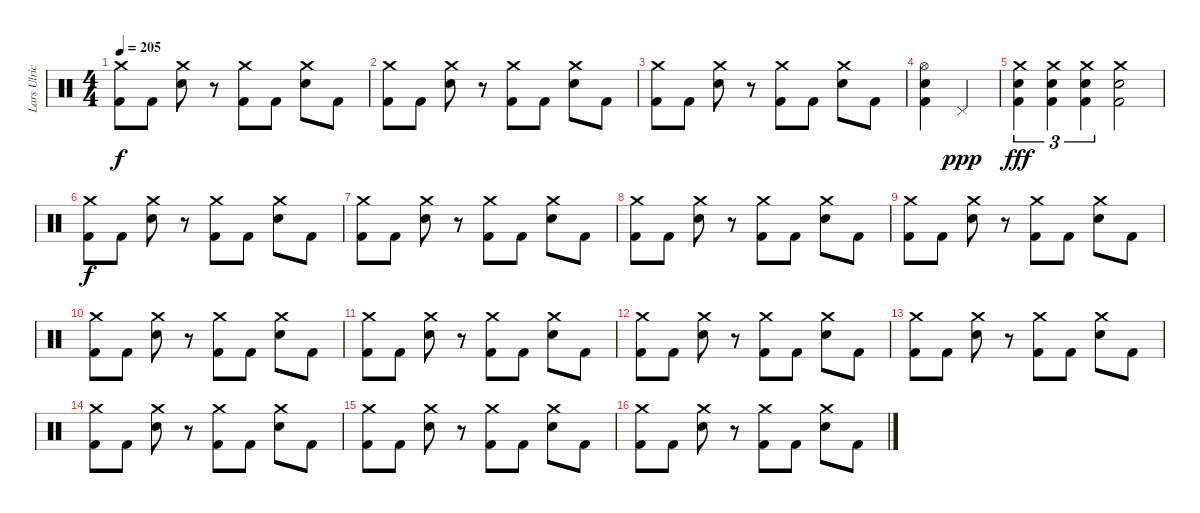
\track ("Lars Ulrich" "Lars Ulric") {instrument percussion}
\staff {score}
\articulation defaults
\ts (4 4)
\tempo 205
\clef neutral
\ks c
("Crash medium (hit)" "Kick (hit) 2").8{dy f} "Kick (hit) 2".8 ("Crash medium (hit)" "Electric Snare (hit)").8 r.8 ("Crash medium (hit)" "Kick (hit) 2").8 "Kick (hit) 2".8 ("Crash medium (hit)" "Electric Snare (hit)").8 "Kick (hit) 2".8 |
("Crash medium (hit)" "Kick (hit) 2").8 "Kick (hit) 2".8 ("Crash medium (hit)" "Electric Snare (hit)").8 r.8 ("Crash medium (hit)" "Kick (hit) 2").8 "Kick (hit) 2".8 ("Crash medium (hit)" "Electric Snare (hit)").8 "Kick (hit) 2".8 |
("Crash medium (hit)" "Kick (hit) 2").8 "Kick (hit) 2".8 ("Crash medium (hit)" "Electric Snare (hit)").8 r.8 ("Crash medium (hit)" "Kick (hit) 2").8 "Kick (hit) 2".8 ("Crash medium (hit)" "Electric Snare (hit)").8 "Kick (hit) 2".8 |
("Hi-Hat (open)" "Electric Snare (hit)" "Kick (hit) 2").4 "Pedal Hi-Hat (hit)".4{dy ppp} |
("Crash medium (hit)" "Kick (hit) 2" "Electric Snare (hit)").4{tu (3 2) dy fff} ("Crash medium (hit)" "Kick (hit) 2" "Electric Snare (hit)").4{tu (3 2)} ("Crash medium (hit)" "Kick (hit) 2" "Electric Snare (hit)").4{tu (3 2)} ("Crash medium (hit)" "Kick (hit) 2" "Electric Snare (hit)").2 |
("Crash medium (hit)" "Kick (hit) 2").8{dy f} "Kick (hit) 2".8 ("Crash medium (hit)" "Electric Snare (hit)").8 r.8 ("Crash medium (hit)" "Kick (hit) 2").8 "Kick (hit) 2".8 ("Crash medium (hit)" "Electric Snare (hit)").8 "Kick (hit) 2".8 |
("Crash medium (hit)" "Kick (hit) 2").8 "Kick (hit) 2".8 ("Crash medium (hit)" "Electric Snare (hit)").8 r.8 ("Crash medium (hit)" "Kick (hit) 2").8 "Kick (hit) 2".8 ("Crash medium (hit)" "Electric Snare (hit)").8 "Kick (hit) 2".8 |
("Crash medium (hit)" "Kick (hit) 2").8 "Kick (hit) 2".8 ("Crash medium (hit)" "Electric Snare (hit)").8 r.8 ("Crash medium (hit)" "Kick (hit) 2").8 "Kick (hit) 2".8 ("Crash medium (hit)" "Electric Snare (hit)").8 "Kick (hit) 2".8 |
("Crash medium (hit)" "Kick (hit) 2").8 "Kick (hit) 2".8 ("Crash medium (hit)" "Electric Snare (hit)").8 r.8 ("Crash medium (hit)" "Kick (hit) 2").8 "Kick (hit) 2".8 ("Crash medium (hit)" "Electric Snare (hit)").8 "Kick (hit) 2".8 |
("Crash medium (hit)" "Kick (hit) 2").8 "Kick (hit) 2".8 ("Crash medium (hit)" "Electric Snare (hit)").8 r.8 ("Crash medium (hit)" "Kick (hit) 2").8 "Kick (hit) 2".8 ("Crash medium (hit)" "Electric Snare (hit)").8 "Kick (hit) 2".8 |
("Crash medium (hit)" "Kick (hit) 2").8 "Kick (hit) 2".8 ("Crash medium (hit)" "Electric Snare (hit)").8 r.8 ("Crash medium (hit)" "Kick (hit) 2").8 "Kick (hit) 2".8 ("Crash medium (hit)" "Electric Snare (hit)").8 "Kick (hit) 2".8 |
("Crash medium (hit)" "Kick (hit) 2").8 "Kick (hit) 2".8 ("Crash medium (hit)" "Electric Snare (hit)").8 r.8 ("Crash medium (hit)" "Kick (hit) 2").8 "Kick (hit) 2".8 ("Crash medium (hit)" "Electric Snare (hit)").8 "Kick (hit) 2".8 |
("Crash medium (hit)" "Kick (hit) 2").8 "Kick (hit) 2".8 ("Crash medium (hit)" "Electric Snare (hit)").8 r.8 ("Crash medium (hit)" "Kick (hit) 2").8 "Kick (hit) 2".8 ("Crash medium (hit)" "Electric Snare (hit)").8 "Kick (hit) 2".8 |
("Crash medium (hit)" "Kick (hit) 2").8 "Kick (hit) 2".8 ("Crash medium (hit)" "Electric Snare (hit)").8 r.8 ("Crash medium (hit)" "Kick (hit) 2").8 "Kick (hit) 2".8 ("Crash medium (hit)" "Electric Snare (hit)").8 "Kick (hit) 2".8 |
("Crash medium (hit)" "Kick (hit) 2").8 "Kick (hit) 2".8 ("Crash medium (hit)" "Electric Snare (hit)").8 r.8 ("Crash medium (hit)" "Kick (hit) 2").8 "Kick (hit) 2".8 ("Crash medium (hit)" "Electric Snare (hit)").8 "Kick (hit) 2".8 |
("Crash medium (hit)" "Kick (hit) 2").8 "Kick (hit) 2".8 ("Crash medium (hit)" "Electric Snare (hit)").8 r.8 ("Crash medium (hit)" "Kick (hit) 2").8 "Kick (hit) 2".8 ("Crash medium (hit)" "Electric Snare (hit)").8 "Kick (hit) 2".8
